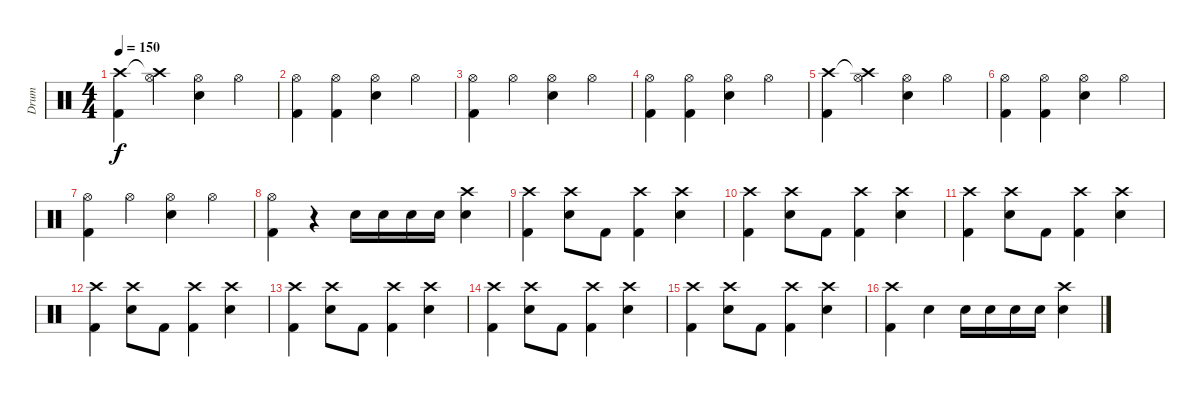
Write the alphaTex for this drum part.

\track ("Drum" "Drum") {instrument percussion}
\staff {score}
\articulation defaults
\ts (4 4)
\tempo 150
\clef neutral
\ks c
("Crash high (hit)" "Kick (hit) 2").4{dy f} ("Crash high (hit)"{t} "Hi-Hat (open)").4 ("Hi-Hat (open)" "Snare (hit) 2").4 "Hi-Hat (open)".4 |
("Hi-Hat (open)" "Kick (hit) 2").4 ("Hi-Hat (open)" "Kick (hit) 2").4 ("Hi-Hat (open)" "Snare (hit) 2").4 "Hi-Hat (open)".4 |
("Hi-Hat (open)" "Kick (hit) 2").4 "Hi-Hat (open)".4 ("Hi-Hat (open)" "Snare (hit) 2").4 "Hi-Hat (open)".4 |
("Hi-Hat (open)" "Kick (hit) 2").4 ("Hi-Hat (open)" "Kick (hit) 2").4 ("Hi-Hat (open)" "Snare (hit) 2").4 "Hi-Hat (open)".4 |
("Crash high (hit)" "Kick (hit) 2").4 ("Crash high (hit)"{t} "Hi-Hat (open)").4 ("Hi-Hat (open)" "Snare (hit) 2").4 "Hi-Hat (open)".4 |
("Hi-Hat (open)" "Kick (hit) 2").4 ("Hi-Hat (open)" "Kick (hit) 2").4 ("Hi-Hat (open)" "Snare (hit) 2").4 "Hi-Hat (open)".4 |
("Hi-Hat (open)" "Kick (hit) 2").4 "Hi-Hat (open)".4 ("Hi-Hat (open)" "Snare (hit) 2").4 "Hi-Hat (open)".4 |
("Hi-Hat (open)" "Kick (hit) 2").4 r.4 "Snare (hit) 2".16 "Snare (hit) 2".16 "Snare (hit) 2".16 "Snare (hit) 2".16 ("Crash high (hit)" "Snare (hit) 2").4 |
("Crash high (hit)" "Kick (hit) 2").4 ("Crash high (hit)" "Snare (hit) 2").8 "Kick (hit) 2".8 ("Crash high (hit)" "Kick (hit) 2").4 ("Crash high (hit)" "Snare (hit) 2").4 |
("Crash high (hit)" "Kick (hit) 2").4 ("Crash high (hit)" "Snare (hit) 2").8 "Kick (hit) 2".8 ("Crash high (hit)" "Kick (hit) 2").4 ("Crash high (hit)" "Snare (hit) 2").4 |
("Crash high (hit)" "Kick (hit) 2").4 ("Crash high (hit)" "Snare (hit) 2").8 "Kick (hit) 2".8 ("Crash high (hit)" "Kick (hit) 2").4 ("Crash high (hit)" "Snare (hit) 2").4 |
("Crash high (hit)" "Kick (hit) 2").4 ("Crash high (hit)" "Snare (hit) 2").8 "Kick (hit) 2".8 ("Crash high (hit)" "Kick (hit) 2").4 ("Crash high (hit)" "Snare (hit) 2").4 |
("Crash high (hit)" "Kick (hit) 2").4 ("Crash high (hit)" "Snare (hit) 2").8 "Kick (hit) 2".8 ("Crash high (hit)" "Kick (hit) 2").4 ("Crash high (hit)" "Snare (hit) 2").4 |
("Crash high (hit)" "Kick (hit) 2").4 ("Crash high (hit)" "Snare (hit) 2").8 "Kick (hit) 2".8 ("Crash high (hit)" "Kick (hit) 2").4 ("Crash high (hit)" "Snare (hit) 2").4 |
("Crash high (hit)" "Kick (hit) 2").4 ("Crash high (hit)" "Snare (hit) 2").8 "Kick (hit) 2".8 ("Crash high (hit)" "Kick (hit) 2").4 ("Crash high (hit)" "Snare (hit) 2").4 |
("Crash high (hit)" "Kick (hit) 2").4 "Snare (hit) 2".4 "Snare (hit) 2".16 "Snare (hit) 2".16 "Snare (hit) 2".16 "Snare (hit) 2".16 ("Crash high (hit)" "Snare (hit) 2").4
